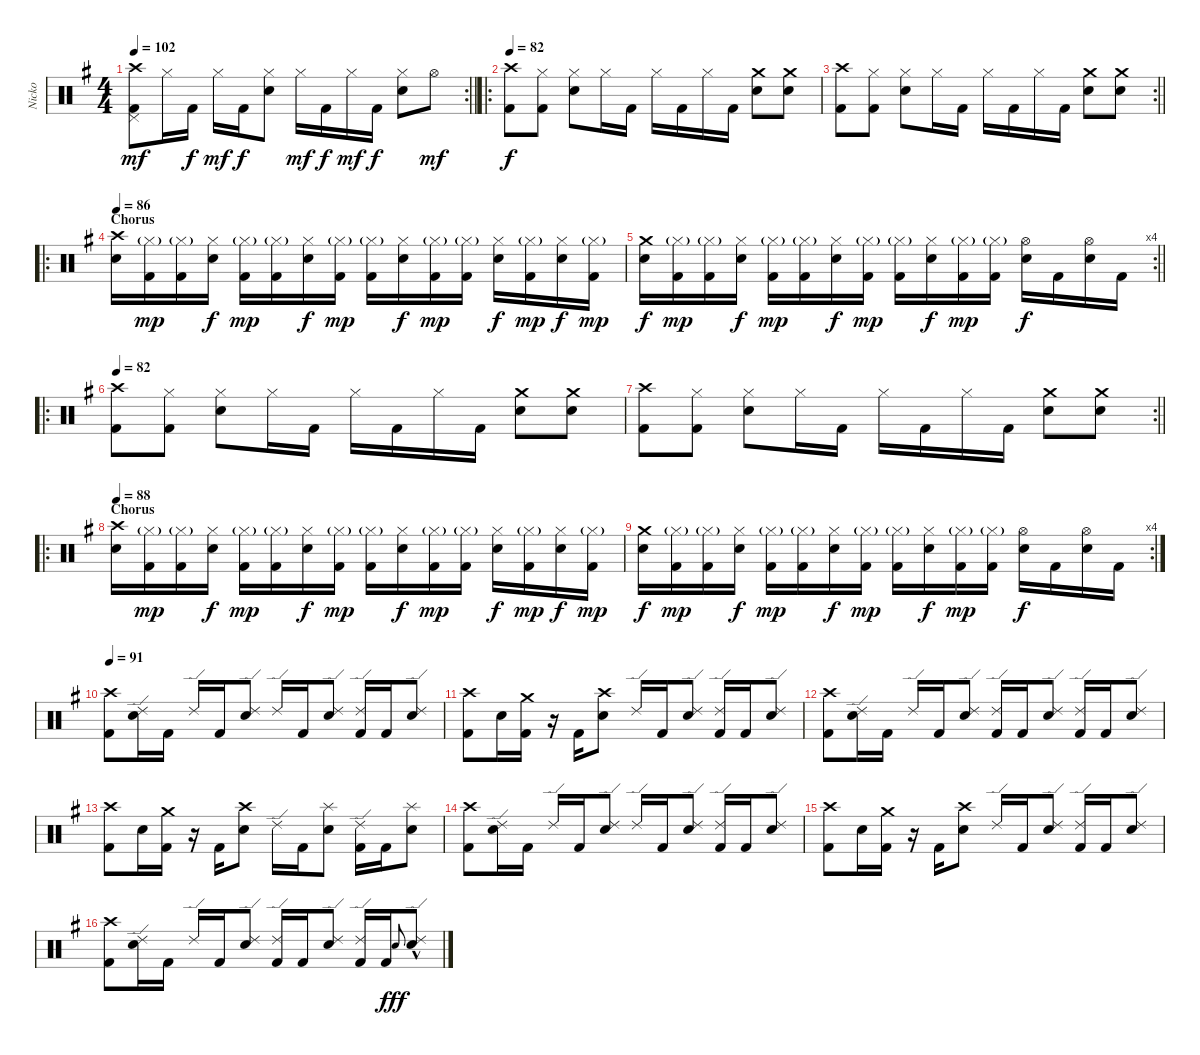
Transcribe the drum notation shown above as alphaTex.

\track ("Nicko" "Nicko") {instrument percussion}
\staff {score}
\articulation defaults
\rc 2
\ts (4 4)
\tempo 102
\clef neutral
\barLineRight lightlight
\ks eminor
("Crash high (hit)" "Pedal Hi-Hat (hit)" "Kick (hit) 2").8{dy mf} "Hi-Hat (closed)".16 "Kick (hit) 2".16{dy f} "Hi-Hat (closed)".16{dy mf} "Kick (hit) 2".16{dy f} ("Hi-Hat (closed)" "Snare (hit) 2").8 "Hi-Hat (closed)".16{dy mf} "Kick (hit) 2".16{dy f} "Hi-Hat (closed)".16{dy mf} "Kick (hit) 2".16{dy f} ("Hi-Hat (closed)" "Snare (hit) 2").8 "Hi-Hat (open)".8{dy mf} |
\ro
\section ("" "")
\tempo 82
("Crash high (hit)" "Kick (hit) 2").8{dy f} ("Hi-Hat (closed)" "Kick (hit) 2").8 ("Hi-Hat (closed)" "Snare (hit) 2").8 "Hi-Hat (closed)".16 "Kick (hit) 2".16 "Hi-Hat (closed)".16 "Kick (hit) 2".16 "Hi-Hat (closed)".16 "Kick (hit) 2".16 ("Crash medium (hit)" "Snare (hit) 2").8 ("Crash medium (hit)" "Snare (hit) 2").8 |
\rc 2
\barLineRight lightlight
("Crash high (hit)" "Kick (hit) 2").8 ("Hi-Hat (closed)" "Kick (hit) 2").8 ("Hi-Hat (closed)" "Snare (hit) 2").8 "Hi-Hat (closed)".16 "Kick (hit) 2".16 "Hi-Hat (closed)".16 "Kick (hit) 2".16 "Hi-Hat (closed)".16 "Kick (hit) 2".16 ("Crash medium (hit)" "Snare (hit) 2").8 ("Crash medium (hit)" "Snare (hit) 2").8 |
\ro
\section ("" "Chorus")
\tempo 86
("Crash high (hit)" "Snare (hit) 2").16 ("Hi-Hat (closed)"{g} "Kick (hit) 2").16{dy mp} ("Hi-Hat (closed)"{g} "Kick (hit) 2").16 ("Hi-Hat (closed)" "Snare (hit) 2").16{dy f} ("Hi-Hat (closed)"{g} "Kick (hit) 2").16{dy mp} ("Hi-Hat (closed)"{g} "Kick (hit) 2").16 ("Hi-Hat (closed)" "Snare (hit) 2").16{dy f} ("Hi-Hat (closed)"{g} "Kick (hit) 2").16{dy mp} ("Hi-Hat (closed)"{g} "Kick (hit) 2").16 ("Hi-Hat (closed)" "Snare (hit) 2").16{dy f} ("Hi-Hat (closed)"{g} "Kick (hit) 2").16{dy mp} ("Hi-Hat (closed)"{g} "Kick (hit) 2").16 ("Hi-Hat (closed)" "Snare (hit) 2").16{dy f} ("Hi-Hat (closed)"{g} "Kick (hit) 2").16{dy mp} ("Hi-Hat (closed)" "Snare (hit) 2").16{dy f} ("Hi-Hat (closed)"{g} "Kick (hit) 2").16{dy mp} |
\rc 4
\barLineRight lightlight
("Crash medium (hit)" "Snare (hit) 2").16{dy f} ("Hi-Hat (closed)"{g} "Kick (hit) 2").16{dy mp} ("Hi-Hat (closed)"{g} "Kick (hit) 2").16 ("Hi-Hat (closed)" "Snare (hit) 2").16{dy f} ("Hi-Hat (closed)"{g} "Kick (hit) 2").16{dy mp} ("Hi-Hat (closed)"{g} "Kick (hit) 2").16 ("Hi-Hat (closed)" "Snare (hit) 2").16{dy f} ("Hi-Hat (closed)"{g} "Kick (hit) 2").16{dy mp} ("Hi-Hat (closed)"{g} "Kick (hit) 2").16 ("Hi-Hat (closed)" "Snare (hit) 2").16{dy f} ("Hi-Hat (closed)"{g} "Kick (hit) 2").16{dy mp} ("Hi-Hat (closed)"{g} "Kick (hit) 2").16 ("Hi-Hat (open)" "Snare (hit) 2").16{dy f} "Kick (hit) 2".16 ("Hi-Hat (open)" "Snare (hit) 2").16 "Kick (hit) 2".16 |
\ro
\section ("" "")
\tempo 82
("Crash high (hit)" "Kick (hit) 2").8 ("Hi-Hat (closed)" "Kick (hit) 2").8 ("Hi-Hat (closed)" "Snare (hit) 2").8 "Hi-Hat (closed)".16 "Kick (hit) 2".16 "Hi-Hat (closed)".16 "Kick (hit) 2".16 "Hi-Hat (closed)".16 "Kick (hit) 2".16 ("Crash medium (hit)" "Snare (hit) 2").8 ("Crash medium (hit)" "Snare (hit) 2").8 |
\rc 2
\barLineRight lightlight
("Crash high (hit)" "Kick (hit) 2").8 ("Hi-Hat (closed)" "Kick (hit) 2").8 ("Hi-Hat (closed)" "Snare (hit) 2").8 "Hi-Hat (closed)".16 "Kick (hit) 2".16 "Hi-Hat (closed)".16 "Kick (hit) 2".16 "Hi-Hat (closed)".16 "Kick (hit) 2".16 ("Crash medium (hit)" "Snare (hit) 2").8 ("Crash medium (hit)" "Snare (hit) 2").8 |
\ro
\section ("" "Chorus")
\tempo 88
("Crash high (hit)" "Snare (hit) 2").16 ("Hi-Hat (closed)"{g} "Kick (hit) 2").16{dy mp} ("Hi-Hat (closed)"{g} "Kick (hit) 2").16 ("Hi-Hat (closed)" "Snare (hit) 2").16{dy f} ("Hi-Hat (closed)"{g} "Kick (hit) 2").16{dy mp} ("Hi-Hat (closed)"{g} "Kick (hit) 2").16 ("Hi-Hat (closed)" "Snare (hit) 2").16{dy f} ("Hi-Hat (closed)"{g} "Kick (hit) 2").16{dy mp} ("Hi-Hat (closed)"{g} "Kick (hit) 2").16 ("Hi-Hat (closed)" "Snare (hit) 2").16{dy f} ("Hi-Hat (closed)"{g} "Kick (hit) 2").16{dy mp} ("Hi-Hat (closed)"{g} "Kick (hit) 2").16 ("Hi-Hat (closed)" "Snare (hit) 2").16{dy f} ("Hi-Hat (closed)"{g} "Kick (hit) 2").16{dy mp} ("Hi-Hat (closed)" "Snare (hit) 2").16{dy f} ("Hi-Hat (closed)"{g} "Kick (hit) 2").16{dy mp} |
\rc 4
("Crash medium (hit)" "Snare (hit) 2").16{dy f} ("Hi-Hat (closed)"{g} "Kick (hit) 2").16{dy mp} ("Hi-Hat (closed)"{g} "Kick (hit) 2").16 ("Hi-Hat (closed)" "Snare (hit) 2").16{dy f} ("Hi-Hat (closed)"{g} "Kick (hit) 2").16{dy mp} ("Hi-Hat (closed)"{g} "Kick (hit) 2").16 ("Hi-Hat (closed)" "Snare (hit) 2").16{dy f} ("Hi-Hat (closed)"{g} "Kick (hit) 2").16{dy mp} ("Hi-Hat (closed)"{g} "Kick (hit) 2").16 ("Hi-Hat (closed)" "Snare (hit) 2").16{dy f} ("Hi-Hat (closed)"{g} "Kick (hit) 2").16{dy mp} ("Hi-Hat (closed)"{g} "Kick (hit) 2").16 ("Hi-Hat (open)" "Snare (hit) 2").16{dy f} "Kick (hit) 2".16 ("Hi-Hat (open)" "Snare (hit) 2").16 "Kick (hit) 2".16 |
\tempo 91
("Crash high (hit)" "Kick (hit) 2").8 ("Ride (edge) 2" "Snare (hit) 2").16 "Kick (hit) 2".16 "Ride (edge) 2".16 "Kick (hit) 2".16 ("Ride (edge) 2" "Snare (hit) 2").8 "Ride (edge) 2".16 "Kick (hit) 2".16 ("Ride (edge) 2" "Snare (hit) 2").8 ("Ride (edge) 2" "Kick (hit) 2").16 "Kick (hit) 2".16 ("Ride (edge) 2" "Snare (hit) 2").8 |
("Crash high (hit)" "Kick (hit) 2").8 "Snare (hit) 2".16 ("Crash medium (hit)" "Kick (hit) 2").16 r.16 "Kick (hit) 2".16 ("Crash high (hit)" "Snare (hit) 2").8 "Ride (edge) 2".16 "Kick (hit) 2".16 ("Ride (edge) 2" "Snare (hit) 2").8 ("Ride (edge) 2" "Kick (hit) 2").16 "Kick (hit) 2".16 ("Ride (edge) 2" "Snare (hit) 2").8 |
("Crash high (hit)" "Kick (hit) 2").8 ("Ride (edge) 2" "Snare (hit) 2").16 "Kick (hit) 2".16 "Ride (edge) 2".16 "Kick (hit) 2".16 ("Ride (edge) 2" "Snare (hit) 2").8 ("Ride (edge) 2" "Kick (hit) 2").16 "Kick (hit) 2".16 ("Ride (edge) 2" "Snare (hit) 2").8 ("Ride (edge) 2" "Kick (hit) 2").16 "Kick (hit) 2".16 ("Ride (edge) 2" "Snare (hit) 2").8 |
("Crash high (hit)" "Kick (hit) 2").8 "Snare (hit) 2".16 ("Crash medium (hit)" "Kick (hit) 2").16 r.16 "Kick (hit) 2".16 ("Crash high (hit)" "Snare (hit) 2").8 "Ride (edge) 2".16 "Kick (hit) 2".16 ("Splash (hit)" "Snare (hit) 2").8 ("Ride (edge) 2" "Kick (hit) 2").16 "Kick (hit) 2".16 ("Splash (hit)" "Snare (hit) 2").8 |
("Crash high (hit)" "Kick (hit) 2").8 ("Ride (edge) 2" "Snare (hit) 2").16 "Kick (hit) 2".16 "Ride (edge) 2".16 "Kick (hit) 2".16 ("Ride (edge) 2" "Snare (hit) 2").8 "Ride (edge) 2".16 "Kick (hit) 2".16 ("Ride (edge) 2" "Snare (hit) 2").8 ("Ride (edge) 2" "Kick (hit) 2").16 "Kick (hit) 2".16 ("Ride (edge) 2" "Snare (hit) 2").8 |
("Crash high (hit)" "Kick (hit) 2").8 "Snare (hit) 2".16 ("Crash medium (hit)" "Kick (hit) 2").16 r.16 "Kick (hit) 2".16 ("Crash high (hit)" "Snare (hit) 2").8 "Ride (edge) 2".16 "Kick (hit) 2".16 ("Ride (edge) 2" "Snare (hit) 2").8 ("Ride (edge) 2" "Kick (hit) 2").16 "Kick (hit) 2".16 ("Ride (edge) 2" "Snare (hit) 2").8 |
("Crash high (hit)" "Kick (hit) 2").8 ("Ride (edge) 2" "Snare (hit) 2").16 "Kick (hit) 2".16 "Ride (edge) 2".16 "Kick (hit) 2".16 ("Ride (edge) 2" "Snare (hit) 2").8 ("Ride (edge) 2" "Kick (hit) 2").16 "Kick (hit) 2".16 ("Ride (edge) 2" "Snare (hit) 2").8 ("Ride (edge) 2" "Kick (hit) 2").16 "Kick (hit) 2".16 "Snare (hit) 2".8{gr onbeat dy fff} ("Ride (edge) 2" "Snare (hit) 2"{hac}).8
